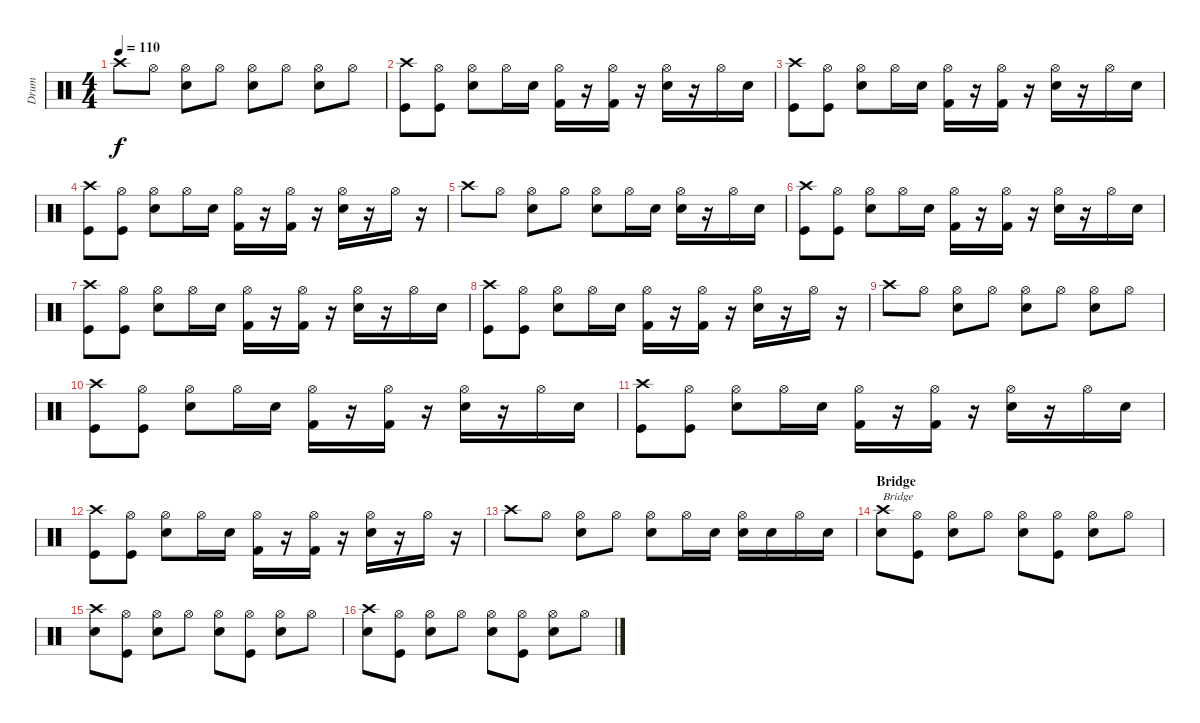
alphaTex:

\track ("Drum" "Drum") {instrument percussion}
\staff {score}
\articulation defaults
\ts (4 4)
\tempo 110
\clef neutral
\ks c "Crash high (hit)".8{dy f} "Hi-Hat (open)".8
("Hi-Hat (open)" "Electric Snare (hit)").8 "Hi-Hat (open)".8 ("Hi-Hat (open)" "Electric Snare (hit)").8 "Hi-Hat (open)".8 ("Hi-Hat (open)" "Electric Snare (hit)").8 "Hi-Hat (open)".8 |
("Crash high (hit)" "Kick (hit)").8 ("Hi-Hat (open)" "Kick (hit)").8 ("Hi-Hat (open)" "Electric Snare (hit)").8 "Hi-Hat (open)".16 "Electric Snare (hit)".16 ("Hi-Hat (open)" "Kick (hit) 2").16 r.16 ("Hi-Hat (open)" "Kick (hit) 2").16 r.16 ("Hi-Hat (open)" "Electric Snare (hit)").16 r.16 "Hi-Hat (open)".16 "Electric Snare (hit)".16 |
("Crash high (hit)" "Kick (hit)").8 ("Hi-Hat (open)" "Kick (hit)").8 ("Hi-Hat (open)" "Electric Snare (hit)").8 "Hi-Hat (open)".16 "Electric Snare (hit)".16 ("Hi-Hat (open)" "Kick (hit) 2").16 r.16 ("Hi-Hat (open)" "Kick (hit) 2").16 r.16 ("Hi-Hat (open)" "Electric Snare (hit)").16 r.16 "Hi-Hat (open)".16 "Electric Snare (hit)".16 |
("Crash high (hit)" "Kick (hit)").8 ("Hi-Hat (open)" "Kick (hit)").8 ("Hi-Hat (open)" "Electric Snare (hit)").8 "Hi-Hat (open)".16 "Electric Snare (hit)".16 ("Hi-Hat (open)" "Kick (hit) 2").16 r.16 ("Hi-Hat (open)" "Kick (hit) 2").16 r.16 ("Hi-Hat (open)" "Electric Snare (hit)").16 r.16 "Hi-Hat (open)".16 r.16 |
"Crash high (hit)".8 "Hi-Hat (open)".8 ("Hi-Hat (open)" "Electric Snare (hit)").8 "Hi-Hat (open)".8 ("Hi-Hat (open)" "Electric Snare (hit)").8 "Hi-Hat (open)".16 "Electric Snare (hit)".16 ("Hi-Hat (open)" "Electric Snare (hit)").16 r.16 "Hi-Hat (open)".16 "Electric Snare (hit)".16 |
("Crash high (hit)" "Kick (hit)").8 ("Hi-Hat (open)" "Kick (hit)").8 ("Hi-Hat (open)" "Electric Snare (hit)").8 "Hi-Hat (open)".16 "Electric Snare (hit)".16 ("Hi-Hat (open)" "Kick (hit) 2").16 r.16 ("Hi-Hat (open)" "Kick (hit) 2").16 r.16 ("Hi-Hat (open)" "Electric Snare (hit)").16 r.16 "Hi-Hat (open)".16 "Electric Snare (hit)".16 |
("Crash high (hit)" "Kick (hit)").8 ("Hi-Hat (open)" "Kick (hit)").8 ("Hi-Hat (open)" "Electric Snare (hit)").8 "Hi-Hat (open)".16 "Electric Snare (hit)".16 ("Hi-Hat (open)" "Kick (hit) 2").16 r.16 ("Hi-Hat (open)" "Kick (hit) 2").16 r.16 ("Hi-Hat (open)" "Electric Snare (hit)").16 r.16 "Hi-Hat (open)".16 "Electric Snare (hit)".16 |
("Crash high (hit)" "Kick (hit)").8 ("Hi-Hat (open)" "Kick (hit)").8 ("Hi-Hat (open)" "Electric Snare (hit)").8 "Hi-Hat (open)".16 "Electric Snare (hit)".16 ("Hi-Hat (open)" "Kick (hit) 2").16 r.16 ("Hi-Hat (open)" "Kick (hit) 2").16 r.16 ("Hi-Hat (open)" "Electric Snare (hit)").16 r.16 "Hi-Hat (open)".16 r.16 |
"Crash high (hit)".8 "Hi-Hat (open)".8 ("Hi-Hat (open)" "Electric Snare (hit)").8 "Hi-Hat (open)".8 ("Hi-Hat (open)" "Electric Snare (hit)").8 "Hi-Hat (open)".8 ("Hi-Hat (open)" "Electric Snare (hit)").8 "Hi-Hat (open)".8 |
("Crash high (hit)" "Kick (hit)").8 ("Hi-Hat (open)" "Kick (hit)").8 ("Hi-Hat (open)" "Electric Snare (hit)").8 "Hi-Hat (open)".16 "Electric Snare (hit)".16 ("Hi-Hat (open)" "Kick (hit) 2").16 r.16 ("Hi-Hat (open)" "Kick (hit) 2").16 r.16 ("Hi-Hat (open)" "Electric Snare (hit)").16 r.16 "Hi-Hat (open)".16 "Electric Snare (hit)".16 |
("Crash high (hit)" "Kick (hit)").8 ("Hi-Hat (open)" "Kick (hit)").8 ("Hi-Hat (open)" "Electric Snare (hit)").8 "Hi-Hat (open)".16 "Electric Snare (hit)".16 ("Hi-Hat (open)" "Kick (hit) 2").16 r.16 ("Hi-Hat (open)" "Kick (hit) 2").16 r.16 ("Hi-Hat (open)" "Electric Snare (hit)").16 r.16 "Hi-Hat (open)".16 "Electric Snare (hit)".16 |
("Crash high (hit)" "Kick (hit)").8 ("Hi-Hat (open)" "Kick (hit)").8 ("Hi-Hat (open)" "Electric Snare (hit)").8 "Hi-Hat (open)".16 "Electric Snare (hit)".16 ("Hi-Hat (open)" "Kick (hit) 2").16 r.16 ("Hi-Hat (open)" "Kick (hit) 2").16 r.16 ("Hi-Hat (open)" "Electric Snare (hit)").16 r.16 "Hi-Hat (open)".16 r.16 |
"Crash high (hit)".8 "Hi-Hat (open)".8 ("Hi-Hat (open)" "Electric Snare (hit)").8 "Hi-Hat (open)".8 ("Hi-Hat (open)" "Electric Snare (hit)").8 "Hi-Hat (open)".16 "Electric Snare (hit)".16 ("Hi-Hat (open)" "Electric Snare (hit)").16 "Electric Snare (hit)".16 "Hi-Hat (open)".16 "Electric Snare (hit)".16 |
\section ("" "Bridge")
("Crash high (hit)" "Electric Snare (hit)").8{txt "Bridge"} ("Hi-Hat (open)" "Kick (hit)").8 ("Hi-Hat (open)" "Electric Snare (hit)").8 "Hi-Hat (open)".8 ("Hi-Hat (open)" "Electric Snare (hit)").8 ("Hi-Hat (open)" "Kick (hit)").8 ("Hi-Hat (open)" "Electric Snare (hit)").8 "Hi-Hat (open)".8 |
("Crash high (hit)" "Electric Snare (hit)").8 ("Hi-Hat (open)" "Kick (hit)").8 ("Hi-Hat (open)" "Electric Snare (hit)").8 "Hi-Hat (open)".8 ("Hi-Hat (open)" "Electric Snare (hit)").8 ("Hi-Hat (open)" "Kick (hit)").8 ("Hi-Hat (open)" "Electric Snare (hit)").8 "Hi-Hat (open)".8 |
("Crash high (hit)" "Electric Snare (hit)").8 ("Hi-Hat (open)" "Kick (hit)").8 ("Hi-Hat (open)" "Electric Snare (hit)").8 "Hi-Hat (open)".8 ("Hi-Hat (open)" "Electric Snare (hit)").8 ("Hi-Hat (open)" "Kick (hit)").8 ("Hi-Hat (open)" "Electric Snare (hit)").8 "Hi-Hat (open)".8
